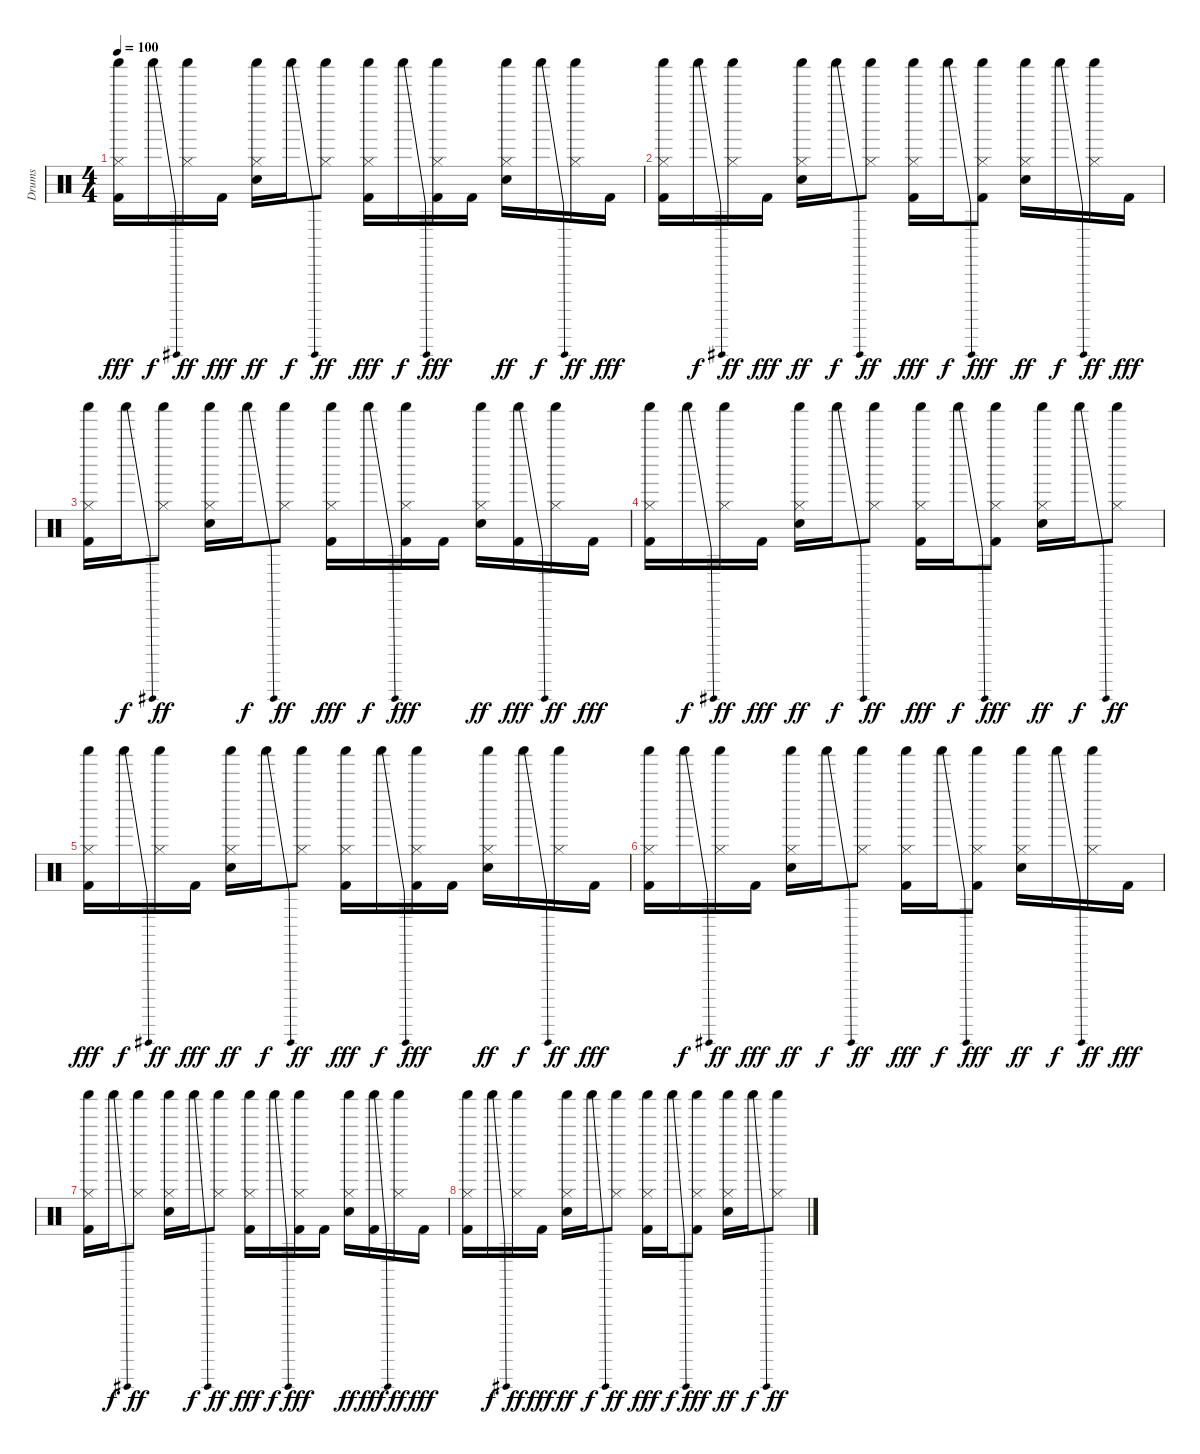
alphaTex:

\track ("Drums" "Drums") {instrument percussion}
\staff {score}
\articulation defaults
\ts (4 4)
\tempo 100
\clef neutral
\ks c
("Shaker (hit)" "Hi-Hat (closed)" "Kick (hit) 2").16{dy fff} "Shaker (hit)"{be (bend 0 0 60 12)}.16{dy f} ("Shaker (hit)" "Hi-Hat (closed)").16{dy ff} "Kick (hit) 2".16{dy fff} ("Shaker (hit)" "Hi-Hat (closed)" "Electric Snare (hit)").16{dy ff} "Shaker (hit)"{be (bend 0 0 60 12)}.16{dy f} ("Shaker (hit)" "Hi-Hat (closed)").8{dy ff} ("Shaker (hit)" "Hi-Hat (closed)" "Kick (hit) 2").16{dy fff} "Shaker (hit)"{be (bend 0 0 60 12)}.16{dy f} ("Shaker (hit)" "Hi-Hat (closed)" "Kick (hit) 2").16{dy fff} "Kick (hit) 2".16 ("Shaker (hit)" "Hi-Hat (closed)" "Electric Snare (hit)").16{dy ff} "Shaker (hit)"{be (bend 0 0 60 12)}.16{dy f} ("Shaker (hit)" "Hi-Hat (closed)").16{dy ff} "Kick (hit) 2".16{dy fff} |
("Shaker (hit)" "Hi-Hat (closed)" "Kick (hit) 2").16 "Shaker (hit)"{be (bend 0 0 60 12)}.16{dy f} ("Shaker (hit)" "Hi-Hat (closed)").16{dy ff} "Kick (hit) 2".16{dy fff} ("Shaker (hit)" "Hi-Hat (closed)" "Electric Snare (hit)").16{dy ff} "Shaker (hit)"{be (bend 0 0 60 12)}.16{dy f} ("Shaker (hit)" "Hi-Hat (closed)").8{dy ff} ("Shaker (hit)" "Hi-Hat (closed)" "Kick (hit) 2").16{dy fff} "Shaker (hit)"{be (bend 0 0 60 12)}.16{dy f} ("Shaker (hit)" "Hi-Hat (closed)" "Kick (hit) 2").8{dy fff} ("Shaker (hit)" "Hi-Hat (closed)" "Electric Snare (hit)").16{dy ff} "Shaker (hit)"{be (bend 0 0 60 12)}.16{dy f} ("Shaker (hit)" "Hi-Hat (closed)").16{dy ff} "Kick (hit) 2".16{dy fff} |
("Shaker (hit)" "Hi-Hat (closed)" "Kick (hit) 2").16 "Shaker (hit)"{be (bend 0 0 60 12)}.16{dy f} ("Shaker (hit)" "Hi-Hat (closed)").8{dy ff} ("Shaker (hit)" "Hi-Hat (closed)" "Electric Snare (hit)").16 "Shaker (hit)"{be (bend 0 0 60 12)}.16{dy f} ("Shaker (hit)" "Hi-Hat (closed)").8{dy ff} ("Shaker (hit)" "Hi-Hat (closed)" "Kick (hit) 2").16{dy fff} "Shaker (hit)"{be (bend 0 0 60 12)}.16{dy f} ("Shaker (hit)" "Hi-Hat (closed)" "Kick (hit) 2").16{dy fff} "Kick (hit) 2".16 ("Shaker (hit)" "Hi-Hat (closed)" "Electric Snare (hit)").16{dy ff} ("Shaker (hit)"{be (bend 0 0 60 12)} "Kick (hit) 2").16{dy fff} ("Shaker (hit)" "Hi-Hat (closed)").16{dy ff} "Kick (hit) 2".16{dy fff} |
("Shaker (hit)" "Hi-Hat (closed)" "Kick (hit) 2").16 "Shaker (hit)"{be (bend 0 0 60 12)}.16{dy f} ("Shaker (hit)" "Hi-Hat (closed)").16{dy ff} "Kick (hit) 2".16{dy fff} ("Shaker (hit)" "Hi-Hat (closed)" "Electric Snare (hit)").16{dy ff} "Shaker (hit)"{be (bend 0 0 60 12)}.16{dy f} ("Shaker (hit)" "Hi-Hat (closed)").8{dy ff} ("Shaker (hit)" "Hi-Hat (closed)" "Kick (hit) 2").16{dy fff} "Shaker (hit)"{be (bend 0 0 60 12)}.16{dy f} ("Shaker (hit)" "Hi-Hat (closed)" "Kick (hit) 2").8{dy fff} ("Shaker (hit)" "Hi-Hat (closed)" "Electric Snare (hit)").16{dy ff} "Shaker (hit)"{be (bend 0 0 60 12)}.16{dy f} ("Shaker (hit)" "Hi-Hat (closed)").8{dy ff} |
("Shaker (hit)" "Hi-Hat (closed)" "Kick (hit) 2").16{dy fff} "Shaker (hit)"{be (bend 0 0 60 12)}.16{dy f} ("Shaker (hit)" "Hi-Hat (closed)").16{dy ff} "Kick (hit) 2".16{dy fff} ("Shaker (hit)" "Hi-Hat (closed)" "Electric Snare (hit)").16{dy ff} "Shaker (hit)"{be (bend 0 0 60 12)}.16{dy f} ("Shaker (hit)" "Hi-Hat (closed)").8{dy ff} ("Shaker (hit)" "Hi-Hat (closed)" "Kick (hit) 2").16{dy fff} "Shaker (hit)"{be (bend 0 0 60 12)}.16{dy f} ("Shaker (hit)" "Hi-Hat (closed)" "Kick (hit) 2").16{dy fff} "Kick (hit) 2".16 ("Shaker (hit)" "Hi-Hat (closed)" "Electric Snare (hit)").16{dy ff} "Shaker (hit)"{be (bend 0 0 60 12)}.16{dy f} ("Shaker (hit)" "Hi-Hat (closed)").16{dy ff} "Kick (hit) 2".16{dy fff} |
("Shaker (hit)" "Hi-Hat (closed)" "Kick (hit) 2").16 "Shaker (hit)"{be (bend 0 0 60 12)}.16{dy f} ("Shaker (hit)" "Hi-Hat (closed)").16{dy ff} "Kick (hit) 2".16{dy fff} ("Shaker (hit)" "Hi-Hat (closed)" "Electric Snare (hit)").16{dy ff} "Shaker (hit)"{be (bend 0 0 60 12)}.16{dy f} ("Shaker (hit)" "Hi-Hat (closed)").8{dy ff} ("Shaker (hit)" "Hi-Hat (closed)" "Kick (hit) 2").16{dy fff} "Shaker (hit)"{be (bend 0 0 60 12)}.16{dy f} ("Shaker (hit)" "Hi-Hat (closed)" "Kick (hit) 2").8{dy fff} ("Shaker (hit)" "Hi-Hat (closed)" "Electric Snare (hit)").16{dy ff} "Shaker (hit)"{be (bend 0 0 60 12)}.16{dy f} ("Shaker (hit)" "Hi-Hat (closed)").16{dy ff} "Kick (hit) 2".16{dy fff} |
("Shaker (hit)" "Hi-Hat (closed)" "Kick (hit) 2").16 "Shaker (hit)"{be (bend 0 0 60 12)}.16{dy f} ("Shaker (hit)" "Hi-Hat (closed)").8{dy ff} ("Shaker (hit)" "Hi-Hat (closed)" "Electric Snare (hit)").16 "Shaker (hit)"{be (bend 0 0 60 12)}.16{dy f} ("Shaker (hit)" "Hi-Hat (closed)").8{dy ff} ("Shaker (hit)" "Hi-Hat (closed)" "Kick (hit) 2").16{dy fff} "Shaker (hit)"{be (bend 0 0 60 12)}.16{dy f} ("Shaker (hit)" "Hi-Hat (closed)" "Kick (hit) 2").16{dy fff} "Kick (hit) 2".16 ("Shaker (hit)" "Hi-Hat (closed)" "Electric Snare (hit)").16{dy ff} ("Shaker (hit)"{be (bend 0 0 60 12)} "Kick (hit) 2").16{dy fff} ("Shaker (hit)" "Hi-Hat (closed)").16{dy ff} "Kick (hit) 2".16{dy fff} |
("Shaker (hit)" "Hi-Hat (closed)" "Kick (hit) 2").16 "Shaker (hit)"{be (bend 0 0 60 12)}.16{dy f} ("Shaker (hit)" "Hi-Hat (closed)").16{dy ff} "Kick (hit) 2".16{dy fff} ("Shaker (hit)" "Hi-Hat (closed)" "Electric Snare (hit)").16{dy ff} "Shaker (hit)"{be (bend 0 0 60 12)}.16{dy f} ("Shaker (hit)" "Hi-Hat (closed)").8{dy ff} ("Shaker (hit)" "Hi-Hat (closed)" "Kick (hit) 2").16{dy fff} "Shaker (hit)"{be (bend 0 0 60 12)}.16{dy f} ("Shaker (hit)" "Hi-Hat (closed)" "Kick (hit) 2").8{dy fff} ("Shaker (hit)" "Hi-Hat (closed)" "Electric Snare (hit)").16{dy ff} "Shaker (hit)"{be (bend 0 0 60 12)}.16{dy f} ("Shaker (hit)" "Hi-Hat (closed)").8{dy ff}
